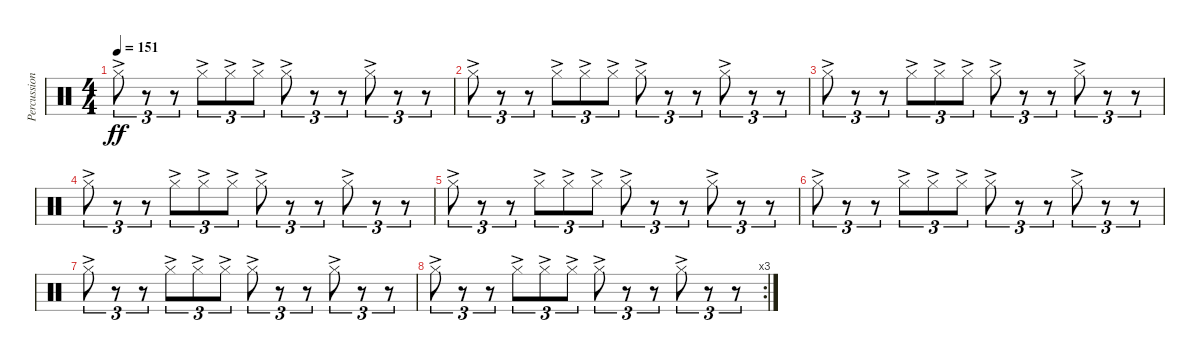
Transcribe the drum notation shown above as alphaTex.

\track ("Percussion" "Percussion") {instrument percussion}
\staff {score}
\articulation defaults
\ts (4 4)
\tempo 151
\clef neutral
\ks c "Hi-Hat (closed)"{ac}.8{tu (3 2) dy ff}
r.8{tu (3 2)} r.8{tu (3 2)} "Hi-Hat (closed)"{ac}.8{tu (3 2)} "Hi-Hat (closed)"{ac}.8{tu (3 2)} "Hi-Hat (closed)"{ac}.8{tu (3 2)} "Hi-Hat (closed)"{ac}.8{tu (3 2)} r.8{tu (3 2)} r.8{tu (3 2)} "Hi-Hat (closed)"{ac}.8{tu (3 2)} r.8{tu (3 2)} r.8{tu (3 2)} |
"Hi-Hat (closed)"{ac}.8{tu (3 2)} r.8{tu (3 2)} r.8{tu (3 2)} "Hi-Hat (closed)"{ac}.8{tu (3 2)} "Hi-Hat (closed)"{ac}.8{tu (3 2)} "Hi-Hat (closed)"{ac}.8{tu (3 2)} "Hi-Hat (closed)"{ac}.8{tu (3 2)} r.8{tu (3 2)} r.8{tu (3 2)} "Hi-Hat (closed)"{ac}.8{tu (3 2)} r.8{tu (3 2)} r.8{tu (3 2)} |
"Hi-Hat (closed)"{ac}.8{tu (3 2)} r.8{tu (3 2)} r.8{tu (3 2)} "Hi-Hat (closed)"{ac}.8{tu (3 2)} "Hi-Hat (closed)"{ac}.8{tu (3 2)} "Hi-Hat (closed)"{ac}.8{tu (3 2)} "Hi-Hat (closed)"{ac}.8{tu (3 2)} r.8{tu (3 2)} r.8{tu (3 2)} "Hi-Hat (closed)"{ac}.8{tu (3 2)} r.8{tu (3 2)} r.8{tu (3 2)} |
"Hi-Hat (closed)"{ac}.8{tu (3 2)} r.8{tu (3 2)} r.8{tu (3 2)} "Hi-Hat (closed)"{ac}.8{tu (3 2)} "Hi-Hat (closed)"{ac}.8{tu (3 2)} "Hi-Hat (closed)"{ac}.8{tu (3 2)} "Hi-Hat (closed)"{ac}.8{tu (3 2)} r.8{tu (3 2)} r.8{tu (3 2)} "Hi-Hat (closed)"{ac}.8{tu (3 2)} r.8{tu (3 2)} r.8{tu (3 2)} |
"Hi-Hat (closed)"{ac}.8{tu (3 2)} r.8{tu (3 2)} r.8{tu (3 2)} "Hi-Hat (closed)"{ac}.8{tu (3 2)} "Hi-Hat (closed)"{ac}.8{tu (3 2)} "Hi-Hat (closed)"{ac}.8{tu (3 2)} "Hi-Hat (closed)"{ac}.8{tu (3 2)} r.8{tu (3 2)} r.8{tu (3 2)} "Hi-Hat (closed)"{ac}.8{tu (3 2)} r.8{tu (3 2)} r.8{tu (3 2)} |
"Hi-Hat (closed)"{ac}.8{tu (3 2)} r.8{tu (3 2)} r.8{tu (3 2)} "Hi-Hat (closed)"{ac}.8{tu (3 2)} "Hi-Hat (closed)"{ac}.8{tu (3 2)} "Hi-Hat (closed)"{ac}.8{tu (3 2)} "Hi-Hat (closed)"{ac}.8{tu (3 2)} r.8{tu (3 2)} r.8{tu (3 2)} "Hi-Hat (closed)"{ac}.8{tu (3 2)} r.8{tu (3 2)} r.8{tu (3 2)} |
"Hi-Hat (closed)"{ac}.8{tu (3 2)} r.8{tu (3 2)} r.8{tu (3 2)} "Hi-Hat (closed)"{ac}.8{tu (3 2)} "Hi-Hat (closed)"{ac}.8{tu (3 2)} "Hi-Hat (closed)"{ac}.8{tu (3 2)} "Hi-Hat (closed)"{ac}.8{tu (3 2)} r.8{tu (3 2)} r.8{tu (3 2)} "Hi-Hat (closed)"{ac}.8{tu (3 2)} r.8{tu (3 2)} r.8{tu (3 2)} |
\rc 3 "Hi-Hat (closed)"{ac}.8{tu (3 2)}
r.8{tu (3 2)} r.8{tu (3 2)} "Hi-Hat (closed)"{ac}.8{tu (3 2)} "Hi-Hat (closed)"{ac}.8{tu (3 2)} "Hi-Hat (closed)"{ac}.8{tu (3 2)} "Hi-Hat (closed)"{ac}.8{tu (3 2)} r.8{tu (3 2)} r.8{tu (3 2)} "Hi-Hat (closed)"{ac}.8{tu (3 2)} r.8{tu (3 2)} r.8{tu (3 2)}
